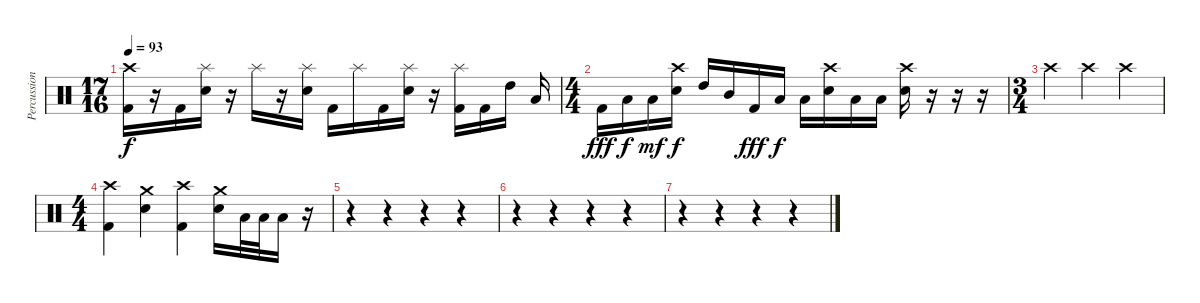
\track ("Percussion" "Percussion") {instrument percussion}
\staff {score}
\articulation defaults
\ts (17 16)
\tempo 93
\clef neutral
\ks c
("Crash high (hit)" "Kick (hit) 2").16{dy f} r.16 "Kick (hit) 2".16 ("Splash (hit)" "Electric Snare (hit)").16 r.16 "Splash (hit)".16 r.16 ("Splash (hit)" "Electric Snare (hit)").16 "Kick (hit) 2".16 "Splash (hit)".16 "Kick (hit) 2".16 ("Splash (hit)" "Electric Snare (hit)").16 r.16 ("Splash (hit)" "Kick (hit) 2").16 "Kick (hit) 2".16 "High Tom (hit)".16 "Low Tom (hit)".16 |
\ts (4 4)
"Kick (hit) 2".16{dy fff} "Low Floor Tom (hit)".16{dy f} "Low Tom (hit)".16{dy mf} ("Crash high (hit)" "Electric Snare (hit)").16{dy f} "High Tom (hit)".16 "Mid Tom (hit)".16 "Kick (hit) 2".16{dy fff} "Low Floor Tom (hit)".16{dy f} "Low Tom (hit)".16 ("Crash high (hit)" "Electric Snare (hit)").16 "Low Floor Tom (hit)".16 "Low Tom (hit)".16 ("Crash high (hit)" "Electric Snare (hit)").16 r.16 r.16 r.16 |
\ts (3 4)
"Crash high (hit)".4 "Crash high (hit)".4 "Crash high (hit)".4 |
\ts (4 4)
("Crash high (hit)" "Kick (hit) 2").4 ("Crash medium (hit)" "Electric Snare (hit)").4 ("Crash high (hit)" "Kick (hit) 2").4 ("Crash medium (hit)" "Electric Snare (hit)").16 "Low Tom (hit)".32 "Low Tom (hit)".32 "Low Tom (hit)".16 r.16 |
r.4 r.4 r.4 r.4 |
r.4 r.4 r.4 r.4 |
r.4 r.4 r.4 r.4
